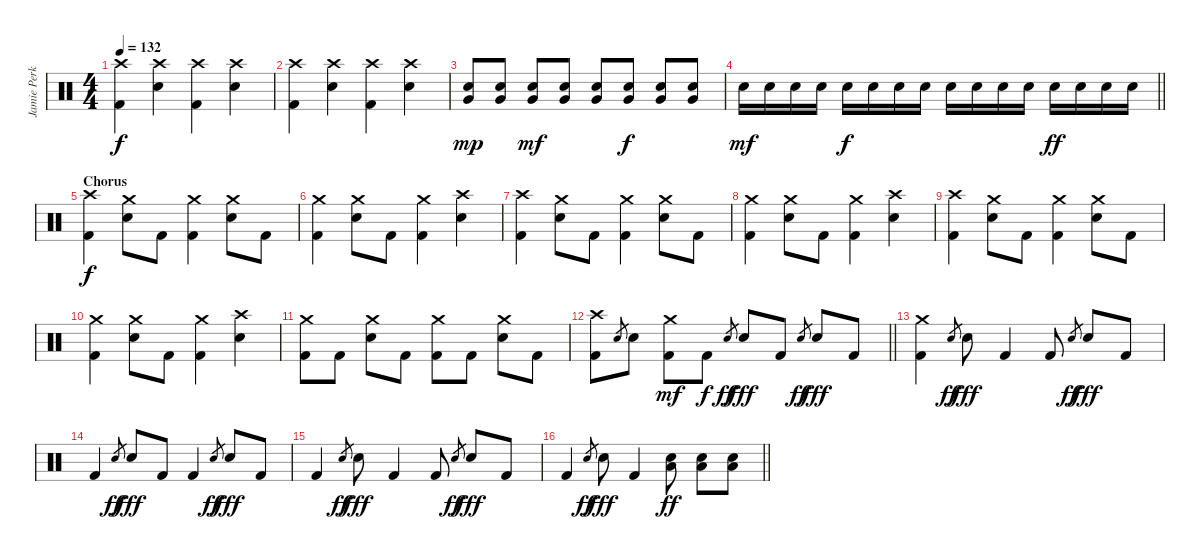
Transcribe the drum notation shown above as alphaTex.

\track ("Jamie Perkins" "Jamie Perk") {instrument percussion}
\staff {score}
\articulation defaults
\ts (4 4)
\tempo 132
\clef neutral
\ks c
("Crash high (hit)" "Kick (hit) 2").4{dy f} ("Crash high (hit)" "Snare (hit) 2").4 ("Crash high (hit)" "Kick (hit) 2").4 ("Crash high (hit)" "Snare (hit) 2").4 |
("Crash high (hit)" "Kick (hit) 2").4 ("Crash high (hit)" "Snare (hit) 2").4 ("Crash high (hit)" "Kick (hit) 2").4 ("Crash high (hit)" "Snare (hit) 2").4 |
("Snare (hit) 2" "Very Low Tom (hit)").8{dy mp} ("Snare (hit) 2" "Very Low Tom (hit)").8 ("Snare (hit) 2" "Very Low Tom (hit)").8{dy mf} ("Snare (hit) 2" "Very Low Tom (hit)").8 ("Snare (hit) 2" "Very Low Tom (hit)").8 ("Snare (hit) 2" "Very Low Tom (hit)").8{dy f} ("Snare (hit) 2" "Very Low Tom (hit)").8 ("Snare (hit) 2" "Very Low Tom (hit)").8 |
\barLineRight lightlight "Snare (hit) 2".16{dy mf} "Snare (hit) 2".16 "Snare (hit) 2".16 "Snare (hit) 2".16 "Snare (hit) 2".16{dy f} "Snare (hit) 2".16 "Snare (hit) 2".16 "Snare (hit) 2".16 "Snare (hit) 2".16 "Snare (hit) 2".16 "Snare (hit) 2".16 "Snare (hit) 2".16 "Snare (hit) 2".16{dy ff} "Snare (hit) 2".16 "Snare (hit) 2".16 "Snare (hit) 2".16
|
\section ("" "Chorus")
("Crash high (hit)" "Kick (hit) 2").4{dy f} ("Crash medium (hit)" "Snare (hit) 2").8 "Kick (hit) 2".8 ("Crash medium (hit)" "Kick (hit) 2").4 ("Crash medium (hit)" "Snare (hit) 2").8 "Kick (hit) 2".8 |
("Crash medium (hit)" "Kick (hit) 2").4 ("Crash medium (hit)" "Snare (hit) 2").8 "Kick (hit) 2".8 ("Crash medium (hit)" "Kick (hit) 2").4 ("Crash high (hit)" "Snare (hit) 2").4 |
("Crash high (hit)" "Kick (hit) 2").4 ("Crash medium (hit)" "Snare (hit) 2").8 "Kick (hit) 2".8 ("Crash medium (hit)" "Kick (hit) 2").4 ("Crash medium (hit)" "Snare (hit) 2").8 "Kick (hit) 2".8 |
("Crash medium (hit)" "Kick (hit) 2").4 ("Crash medium (hit)" "Snare (hit) 2").8 "Kick (hit) 2".8 ("Crash medium (hit)" "Kick (hit) 2").4 ("Crash high (hit)" "Snare (hit) 2").4 |
("Crash high (hit)" "Kick (hit) 2").4 ("Crash medium (hit)" "Snare (hit) 2").8 "Kick (hit) 2".8 ("Crash medium (hit)" "Kick (hit) 2").4 ("Crash medium (hit)" "Snare (hit) 2").8 "Kick (hit) 2".8 |
("Crash medium (hit)" "Kick (hit) 2").4 ("Crash medium (hit)" "Snare (hit) 2").8 "Kick (hit) 2".8 ("Crash medium (hit)" "Kick (hit) 2").4 ("Crash high (hit)" "Snare (hit) 2").4 |
("Crash medium (hit)" "Kick (hit) 2").8 "Kick (hit) 2".8 ("Crash medium (hit)" "Snare (hit) 2").8 "Kick (hit) 2".8 ("Crash medium (hit)" "Kick (hit) 2").8 "Kick (hit) 2".8 ("Crash medium (hit)" "Snare (hit) 2").8 "Kick (hit) 2".8 |
\barLineRight lightlight
("Crash high (hit)" "Kick (hit) 2").8 "Snare (hit) 2".8{gr} "Snare (hit) 2".8 ("Crash medium (hit)" "Kick (hit) 2").8{dy mf} "Kick (hit) 2".8{dy f} "Snare (hit) 2".8{gr dy ff} "Snare (hit) 2".8{dy fff} "Kick (hit) 2".8 "Snare (hit) 2".8{gr dy ff} "Snare (hit) 2".8{dy fff} "Kick (hit) 2".8 |
("Crash medium (hit)" "Kick (hit) 2").4 "Snare (hit) 2".8{gr dy ff} "Snare (hit) 2".8{dy fff} "Kick (hit) 2".4 "Kick (hit) 2".8 "Snare (hit) 2".8{gr dy ff} "Snare (hit) 2".8{dy fff} "Kick (hit) 2".8 |
"Kick (hit) 2".4 "Snare (hit) 2".8{gr dy ff} "Snare (hit) 2".8{dy fff} "Kick (hit) 2".8 "Kick (hit) 2".4 "Snare (hit) 2".8{gr dy ff} "Snare (hit) 2".8{dy fff} "Kick (hit) 2".8 |
"Kick (hit) 2".4 "Snare (hit) 2".8{gr dy ff} "Snare (hit) 2".8{dy fff} "Kick (hit) 2".4 "Kick (hit) 2".8 "Snare (hit) 2".8{gr dy ff} "Snare (hit) 2".8{dy fff} "Kick (hit) 2".8 |
\barLineRight lightlight "Kick (hit) 2".4 "Snare (hit) 2".8{gr dy ff} "Snare (hit) 2".8{dy fff} "Kick (hit) 2".4
("Low Tom (hit)" "Snare (hit) 2").8{dy ff} ("Low Tom (hit)" "Snare (hit) 2").8 ("Low Tom (hit)" "Snare (hit) 2").8
